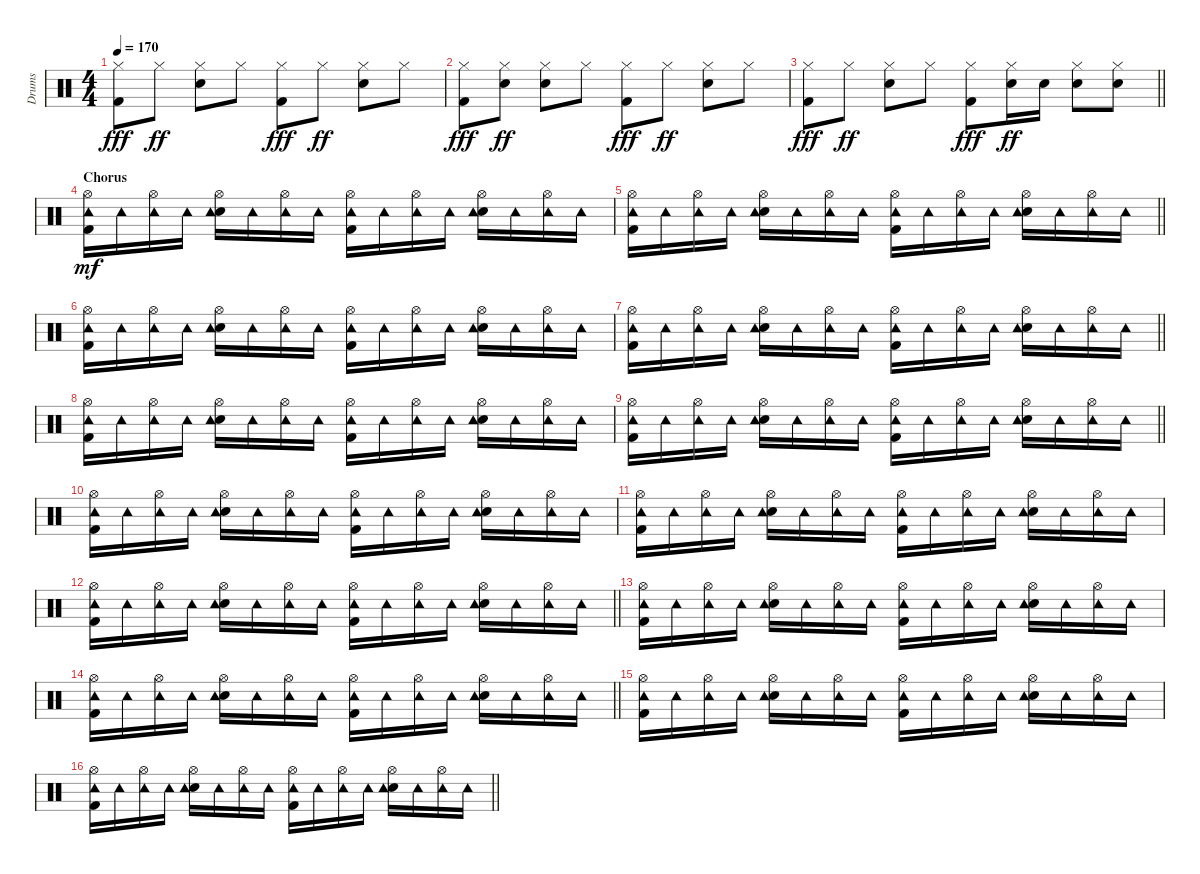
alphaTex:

\track ("Drums" "Drums") {instrument percussion}
\staff {score}
\articulation defaults
\ts (4 4)
\tempo 170
\clef neutral
\ks c
("Hi-Hat (closed)" "Kick (hit) 2").8{dy fff} "Hi-Hat (closed)".8{dy ff} ("Hi-Hat (closed)" "Snare (hit) 2").8 "Hi-Hat (closed)".8 ("Hi-Hat (closed)" "Kick (hit) 2").8{dy fff} "Hi-Hat (closed)".8{dy ff} ("Hi-Hat (closed)" "Snare (hit) 2").8 "Hi-Hat (closed)".8 |
("Hi-Hat (closed)" "Kick (hit) 2").8{dy fff} ("Hi-Hat (closed)" "Snare (hit) 2").8{dy ff} ("Hi-Hat (closed)" "Snare (hit) 2").8 "Hi-Hat (closed)".8 ("Hi-Hat (closed)" "Kick (hit) 2").8{dy fff} "Hi-Hat (closed)".8{dy ff} ("Hi-Hat (closed)" "Snare (hit) 2").8 "Hi-Hat (closed)".8 |
\barLineRight lightlight
("Hi-Hat (closed)" "Kick (hit) 2").8{dy fff} "Hi-Hat (closed)".8{dy ff} ("Hi-Hat (closed)" "Snare (hit) 2").8 "Hi-Hat (closed)".8 ("Hi-Hat (closed)" "Kick (hit) 2").8{dy fff} ("Hi-Hat (closed)" "Snare (hit) 2").16{dy ff} "Snare (hit) 2".16 ("Hi-Hat (closed)" "Snare (hit) 2").8 ("Hi-Hat (closed)" "Snare (hit) 2").8 |
\section ("" "Chorus")
("Hi-Hat (open)" "Kick (hit) 2" "Tambourine (hit)").16{dy mf} "Tambourine (hit)".16 ("Hi-Hat (open)" "Tambourine (hit)").16 "Tambourine (hit)".16 ("Hi-Hat (open)" "Snare (hit) 2" "Tambourine (hit)").16 "Tambourine (hit)".16 ("Hi-Hat (open)" "Tambourine (hit)").16 "Tambourine (hit)".16 ("Hi-Hat (open)" "Kick (hit) 2" "Tambourine (hit)").16 "Tambourine (hit)".16 ("Hi-Hat (open)" "Tambourine (hit)").16 "Tambourine (hit)".16 ("Hi-Hat (open)" "Snare (hit) 2" "Tambourine (hit)").16 "Tambourine (hit)".16 ("Hi-Hat (open)" "Tambourine (hit)").16 "Tambourine (hit)".16 |
\barLineRight lightlight
("Hi-Hat (open)" "Kick (hit) 2" "Tambourine (hit)").16 "Tambourine (hit)".16 ("Hi-Hat (open)" "Tambourine (hit)").16 "Tambourine (hit)".16 ("Hi-Hat (open)" "Snare (hit) 2" "Tambourine (hit)").16 "Tambourine (hit)".16 ("Hi-Hat (open)" "Tambourine (hit)").16 "Tambourine (hit)".16 ("Hi-Hat (open)" "Kick (hit) 2" "Tambourine (hit)").16 "Tambourine (hit)".16 ("Hi-Hat (open)" "Tambourine (hit)").16 "Tambourine (hit)".16 ("Hi-Hat (open)" "Snare (hit) 2" "Tambourine (hit)").16 "Tambourine (hit)".16 ("Hi-Hat (open)" "Tambourine (hit)").16 "Tambourine (hit)".16 |
("Hi-Hat (open)" "Kick (hit) 2" "Tambourine (hit)").16 "Tambourine (hit)".16 ("Hi-Hat (open)" "Tambourine (hit)").16 "Tambourine (hit)".16 ("Hi-Hat (open)" "Snare (hit) 2" "Tambourine (hit)").16 "Tambourine (hit)".16 ("Hi-Hat (open)" "Tambourine (hit)").16 "Tambourine (hit)".16 ("Hi-Hat (open)" "Kick (hit) 2" "Tambourine (hit)").16 "Tambourine (hit)".16 ("Hi-Hat (open)" "Tambourine (hit)").16 "Tambourine (hit)".16 ("Hi-Hat (open)" "Snare (hit) 2" "Tambourine (hit)").16 "Tambourine (hit)".16 ("Hi-Hat (open)" "Tambourine (hit)").16 "Tambourine (hit)".16 |
\barLineRight lightlight
("Hi-Hat (open)" "Kick (hit) 2" "Tambourine (hit)").16 "Tambourine (hit)".16 ("Hi-Hat (open)" "Tambourine (hit)").16 "Tambourine (hit)".16 ("Hi-Hat (open)" "Snare (hit) 2" "Tambourine (hit)").16 "Tambourine (hit)".16 ("Hi-Hat (open)" "Tambourine (hit)").16 "Tambourine (hit)".16 ("Hi-Hat (open)" "Kick (hit) 2" "Tambourine (hit)").16 "Tambourine (hit)".16 ("Hi-Hat (open)" "Tambourine (hit)").16 "Tambourine (hit)".16 ("Hi-Hat (open)" "Snare (hit) 2" "Tambourine (hit)").16 "Tambourine (hit)".16 ("Hi-Hat (open)" "Tambourine (hit)").16 "Tambourine (hit)".16 |
("Hi-Hat (open)" "Kick (hit) 2" "Tambourine (hit)").16 "Tambourine (hit)".16 ("Hi-Hat (open)" "Tambourine (hit)").16 "Tambourine (hit)".16 ("Hi-Hat (open)" "Snare (hit) 2" "Tambourine (hit)").16 "Tambourine (hit)".16 ("Hi-Hat (open)" "Tambourine (hit)").16 "Tambourine (hit)".16 ("Hi-Hat (open)" "Kick (hit) 2" "Tambourine (hit)").16 "Tambourine (hit)".16 ("Hi-Hat (open)" "Tambourine (hit)").16 "Tambourine (hit)".16 ("Hi-Hat (open)" "Snare (hit) 2" "Tambourine (hit)").16 "Tambourine (hit)".16 ("Hi-Hat (open)" "Tambourine (hit)").16 "Tambourine (hit)".16 |
\barLineRight lightlight
("Hi-Hat (open)" "Kick (hit) 2" "Tambourine (hit)").16 "Tambourine (hit)".16 ("Hi-Hat (open)" "Tambourine (hit)").16 "Tambourine (hit)".16 ("Hi-Hat (open)" "Snare (hit) 2" "Tambourine (hit)").16 "Tambourine (hit)".16 ("Hi-Hat (open)" "Tambourine (hit)").16 "Tambourine (hit)".16 ("Hi-Hat (open)" "Kick (hit) 2" "Tambourine (hit)").16 "Tambourine (hit)".16 ("Hi-Hat (open)" "Tambourine (hit)").16 "Tambourine (hit)".16 ("Hi-Hat (open)" "Snare (hit) 2" "Tambourine (hit)").16 "Tambourine (hit)".16 ("Hi-Hat (open)" "Tambourine (hit)").16 "Tambourine (hit)".16 |
("Hi-Hat (open)" "Kick (hit) 2" "Tambourine (hit)").16 "Tambourine (hit)".16 ("Hi-Hat (open)" "Tambourine (hit)").16 "Tambourine (hit)".16 ("Hi-Hat (open)" "Snare (hit) 2" "Tambourine (hit)").16 "Tambourine (hit)".16 ("Hi-Hat (open)" "Tambourine (hit)").16 "Tambourine (hit)".16 ("Hi-Hat (open)" "Kick (hit) 2" "Tambourine (hit)").16 "Tambourine (hit)".16 ("Hi-Hat (open)" "Tambourine (hit)").16 "Tambourine (hit)".16 ("Hi-Hat (open)" "Snare (hit) 2" "Tambourine (hit)").16 "Tambourine (hit)".16 ("Hi-Hat (open)" "Tambourine (hit)").16 "Tambourine (hit)".16 |
("Hi-Hat (open)" "Kick (hit) 2" "Tambourine (hit)").16 "Tambourine (hit)".16 ("Hi-Hat (open)" "Tambourine (hit)").16 "Tambourine (hit)".16 ("Hi-Hat (open)" "Snare (hit) 2" "Tambourine (hit)").16 "Tambourine (hit)".16 ("Hi-Hat (open)" "Tambourine (hit)").16 "Tambourine (hit)".16 ("Hi-Hat (open)" "Kick (hit) 2" "Tambourine (hit)").16 "Tambourine (hit)".16 ("Hi-Hat (open)" "Tambourine (hit)").16 "Tambourine (hit)".16 ("Hi-Hat (open)" "Snare (hit) 2" "Tambourine (hit)").16 "Tambourine (hit)".16 ("Hi-Hat (open)" "Tambourine (hit)").16 "Tambourine (hit)".16 |
\barLineRight lightlight
("Hi-Hat (open)" "Kick (hit) 2" "Tambourine (hit)").16 "Tambourine (hit)".16 ("Hi-Hat (open)" "Tambourine (hit)").16 "Tambourine (hit)".16 ("Hi-Hat (open)" "Snare (hit) 2" "Tambourine (hit)").16 "Tambourine (hit)".16 ("Hi-Hat (open)" "Tambourine (hit)").16 "Tambourine (hit)".16 ("Hi-Hat (open)" "Kick (hit) 2" "Tambourine (hit)").16 "Tambourine (hit)".16 ("Hi-Hat (open)" "Tambourine (hit)").16 "Tambourine (hit)".16 ("Hi-Hat (open)" "Snare (hit) 2" "Tambourine (hit)").16 "Tambourine (hit)".16 ("Hi-Hat (open)" "Tambourine (hit)").16 "Tambourine (hit)".16 |
("Hi-Hat (open)" "Kick (hit) 2" "Tambourine (hit)").16 "Tambourine (hit)".16 ("Hi-Hat (open)" "Tambourine (hit)").16 "Tambourine (hit)".16 ("Hi-Hat (open)" "Snare (hit) 2" "Tambourine (hit)").16 "Tambourine (hit)".16 ("Hi-Hat (open)" "Tambourine (hit)").16 "Tambourine (hit)".16 ("Hi-Hat (open)" "Kick (hit) 2" "Tambourine (hit)").16 "Tambourine (hit)".16 ("Hi-Hat (open)" "Tambourine (hit)").16 "Tambourine (hit)".16 ("Hi-Hat (open)" "Snare (hit) 2" "Tambourine (hit)").16 "Tambourine (hit)".16 ("Hi-Hat (open)" "Tambourine (hit)").16 "Tambourine (hit)".16 |
\barLineRight lightlight
("Hi-Hat (open)" "Kick (hit) 2" "Tambourine (hit)").16 "Tambourine (hit)".16 ("Hi-Hat (open)" "Tambourine (hit)").16 "Tambourine (hit)".16 ("Hi-Hat (open)" "Snare (hit) 2" "Tambourine (hit)").16 "Tambourine (hit)".16 ("Hi-Hat (open)" "Tambourine (hit)").16 "Tambourine (hit)".16 ("Hi-Hat (open)" "Kick (hit) 2" "Tambourine (hit)").16 "Tambourine (hit)".16 ("Hi-Hat (open)" "Tambourine (hit)").16 "Tambourine (hit)".16 ("Hi-Hat (open)" "Snare (hit) 2" "Tambourine (hit)").16 "Tambourine (hit)".16 ("Hi-Hat (open)" "Tambourine (hit)").16 "Tambourine (hit)".16 |
("Hi-Hat (open)" "Kick (hit) 2" "Tambourine (hit)").16 "Tambourine (hit)".16 ("Hi-Hat (open)" "Tambourine (hit)").16 "Tambourine (hit)".16 ("Hi-Hat (open)" "Snare (hit) 2" "Tambourine (hit)").16 "Tambourine (hit)".16 ("Hi-Hat (open)" "Tambourine (hit)").16 "Tambourine (hit)".16 ("Hi-Hat (open)" "Kick (hit) 2" "Tambourine (hit)").16 "Tambourine (hit)".16 ("Hi-Hat (open)" "Tambourine (hit)").16 "Tambourine (hit)".16 ("Hi-Hat (open)" "Snare (hit) 2" "Tambourine (hit)").16 "Tambourine (hit)".16 ("Hi-Hat (open)" "Tambourine (hit)").16 "Tambourine (hit)".16 |
\barLineRight lightlight
("Hi-Hat (open)" "Kick (hit) 2" "Tambourine (hit)").16 "Tambourine (hit)".16 ("Hi-Hat (open)" "Tambourine (hit)").16 "Tambourine (hit)".16 ("Hi-Hat (open)" "Snare (hit) 2" "Tambourine (hit)").16 "Tambourine (hit)".16 ("Hi-Hat (open)" "Tambourine (hit)").16 "Tambourine (hit)".16 ("Hi-Hat (open)" "Kick (hit) 2" "Tambourine (hit)").16 "Tambourine (hit)".16 ("Hi-Hat (open)" "Tambourine (hit)").16 "Tambourine (hit)".16 ("Hi-Hat (open)" "Snare (hit) 2" "Tambourine (hit)").16 "Tambourine (hit)".16 ("Hi-Hat (open)" "Tambourine (hit)").16 "Tambourine (hit)".16
